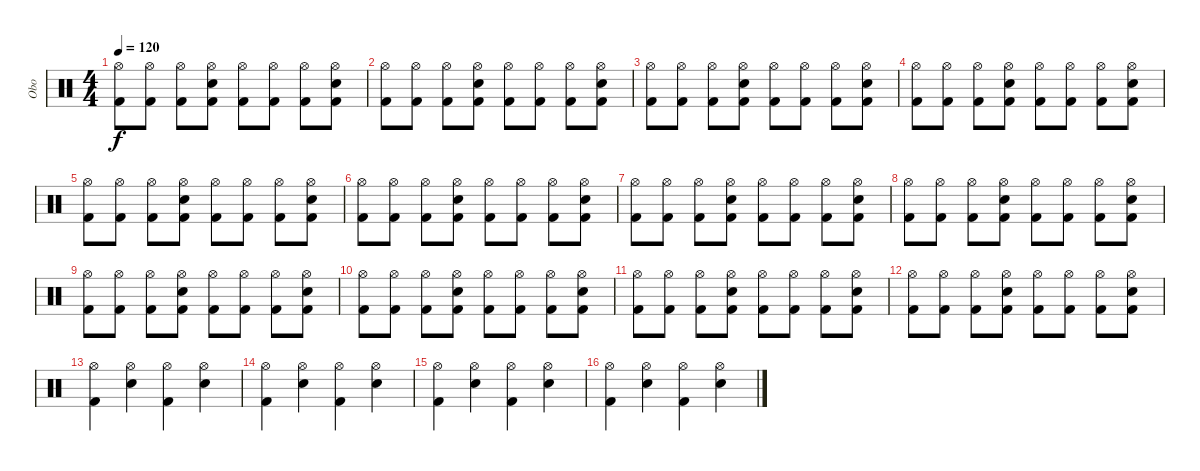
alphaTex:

\track ("Obo" "Obo") {instrument percussion}
\staff {score}
\articulation defaults
\ts (4 4)
\tempo 120
\clef neutral
\ks c
("Kick (hit) 2" "Hi-Hat (open)").8{dy f} ("Kick (hit) 2" "Hi-Hat (open)").8 ("Kick (hit) 2" "Hi-Hat (open)").8 ("Snare (hit) 2" "Kick (hit) 2" "Hi-Hat (open)").8 ("Kick (hit) 2" "Hi-Hat (open)").8 ("Kick (hit) 2" "Hi-Hat (open)").8 ("Kick (hit) 2" "Hi-Hat (open)").8 ("Snare (hit) 2" "Kick (hit) 2" "Hi-Hat (open)").8 |
("Kick (hit) 2" "Hi-Hat (open)").8 ("Kick (hit) 2" "Hi-Hat (open)").8 ("Kick (hit) 2" "Hi-Hat (open)").8 ("Snare (hit) 2" "Kick (hit) 2" "Hi-Hat (open)").8 ("Kick (hit) 2" "Hi-Hat (open)").8 ("Kick (hit) 2" "Hi-Hat (open)").8 ("Kick (hit) 2" "Hi-Hat (open)").8 ("Snare (hit) 2" "Kick (hit) 2" "Hi-Hat (open)").8 |
("Kick (hit) 2" "Hi-Hat (open)").8 ("Kick (hit) 2" "Hi-Hat (open)").8 ("Kick (hit) 2" "Hi-Hat (open)").8 ("Snare (hit) 2" "Kick (hit) 2" "Hi-Hat (open)").8 ("Kick (hit) 2" "Hi-Hat (open)").8 ("Kick (hit) 2" "Hi-Hat (open)").8 ("Kick (hit) 2" "Hi-Hat (open)").8 ("Snare (hit) 2" "Kick (hit) 2" "Hi-Hat (open)").8 |
("Kick (hit) 2" "Hi-Hat (open)").8 ("Kick (hit) 2" "Hi-Hat (open)").8 ("Kick (hit) 2" "Hi-Hat (open)").8 ("Snare (hit) 2" "Kick (hit) 2" "Hi-Hat (open)").8 ("Kick (hit) 2" "Hi-Hat (open)").8 ("Kick (hit) 2" "Hi-Hat (open)").8 ("Kick (hit) 2" "Hi-Hat (open)").8 ("Snare (hit) 2" "Kick (hit) 2" "Hi-Hat (open)").8 |
("Kick (hit) 2" "Hi-Hat (open)").8 ("Kick (hit) 2" "Hi-Hat (open)").8 ("Kick (hit) 2" "Hi-Hat (open)").8 ("Snare (hit) 2" "Kick (hit) 2" "Hi-Hat (open)").8 ("Kick (hit) 2" "Hi-Hat (open)").8 ("Kick (hit) 2" "Hi-Hat (open)").8 ("Kick (hit) 2" "Hi-Hat (open)").8 ("Snare (hit) 2" "Kick (hit) 2" "Hi-Hat (open)").8 |
("Kick (hit) 2" "Hi-Hat (open)").8 ("Kick (hit) 2" "Hi-Hat (open)").8 ("Kick (hit) 2" "Hi-Hat (open)").8 ("Snare (hit) 2" "Kick (hit) 2" "Hi-Hat (open)").8 ("Kick (hit) 2" "Hi-Hat (open)").8 ("Kick (hit) 2" "Hi-Hat (open)").8 ("Kick (hit) 2" "Hi-Hat (open)").8 ("Snare (hit) 2" "Kick (hit) 2" "Hi-Hat (open)").8 |
("Kick (hit) 2" "Hi-Hat (open)").8 ("Kick (hit) 2" "Hi-Hat (open)").8 ("Kick (hit) 2" "Hi-Hat (open)").8 ("Snare (hit) 2" "Kick (hit) 2" "Hi-Hat (open)").8 ("Kick (hit) 2" "Hi-Hat (open)").8 ("Kick (hit) 2" "Hi-Hat (open)").8 ("Kick (hit) 2" "Hi-Hat (open)").8 ("Snare (hit) 2" "Kick (hit) 2" "Hi-Hat (open)").8 |
("Kick (hit) 2" "Hi-Hat (open)").8 ("Kick (hit) 2" "Hi-Hat (open)").8 ("Kick (hit) 2" "Hi-Hat (open)").8 ("Snare (hit) 2" "Kick (hit) 2" "Hi-Hat (open)").8 ("Kick (hit) 2" "Hi-Hat (open)").8 ("Kick (hit) 2" "Hi-Hat (open)").8 ("Kick (hit) 2" "Hi-Hat (open)").8 ("Snare (hit) 2" "Kick (hit) 2" "Hi-Hat (open)").8 |
("Kick (hit) 2" "Hi-Hat (open)").8 ("Kick (hit) 2" "Hi-Hat (open)").8 ("Kick (hit) 2" "Hi-Hat (open)").8 ("Snare (hit) 2" "Kick (hit) 2" "Hi-Hat (open)").8 ("Kick (hit) 2" "Hi-Hat (open)").8 ("Kick (hit) 2" "Hi-Hat (open)").8 ("Kick (hit) 2" "Hi-Hat (open)").8 ("Snare (hit) 2" "Kick (hit) 2" "Hi-Hat (open)").8 |
("Kick (hit) 2" "Hi-Hat (open)").8 ("Kick (hit) 2" "Hi-Hat (open)").8 ("Kick (hit) 2" "Hi-Hat (open)").8 ("Snare (hit) 2" "Kick (hit) 2" "Hi-Hat (open)").8 ("Kick (hit) 2" "Hi-Hat (open)").8 ("Kick (hit) 2" "Hi-Hat (open)").8 ("Kick (hit) 2" "Hi-Hat (open)").8 ("Snare (hit) 2" "Kick (hit) 2" "Hi-Hat (open)").8 |
("Kick (hit) 2" "Hi-Hat (open)").8 ("Kick (hit) 2" "Hi-Hat (open)").8 ("Kick (hit) 2" "Hi-Hat (open)").8 ("Snare (hit) 2" "Kick (hit) 2" "Hi-Hat (open)").8 ("Kick (hit) 2" "Hi-Hat (open)").8 ("Kick (hit) 2" "Hi-Hat (open)").8 ("Kick (hit) 2" "Hi-Hat (open)").8 ("Snare (hit) 2" "Kick (hit) 2" "Hi-Hat (open)").8 |
("Kick (hit) 2" "Hi-Hat (open)").8 ("Kick (hit) 2" "Hi-Hat (open)").8 ("Kick (hit) 2" "Hi-Hat (open)").8 ("Snare (hit) 2" "Kick (hit) 2" "Hi-Hat (open)").8 ("Kick (hit) 2" "Hi-Hat (open)").8 ("Kick (hit) 2" "Hi-Hat (open)").8 ("Kick (hit) 2" "Hi-Hat (open)").8 ("Snare (hit) 2" "Kick (hit) 2" "Hi-Hat (open)").8 |
("Kick (hit) 2" "Hi-Hat (open)").4 ("Snare (hit) 2" "Hi-Hat (open)").4 ("Kick (hit) 2" "Hi-Hat (open)").4 ("Snare (hit) 2" "Hi-Hat (open)").4 |
("Kick (hit) 2" "Hi-Hat (open)").4 ("Snare (hit) 2" "Hi-Hat (open)").4 ("Kick (hit) 2" "Hi-Hat (open)").4 ("Snare (hit) 2" "Hi-Hat (open)").4 |
("Kick (hit) 2" "Hi-Hat (open)").4 ("Snare (hit) 2" "Hi-Hat (open)").4 ("Kick (hit) 2" "Hi-Hat (open)").4 ("Snare (hit) 2" "Hi-Hat (open)").4 |
("Kick (hit) 2" "Hi-Hat (open)").4 ("Snare (hit) 2" "Hi-Hat (open)").4 ("Kick (hit) 2" "Hi-Hat (open)").4 ("Snare (hit) 2" "Hi-Hat (open)").4
